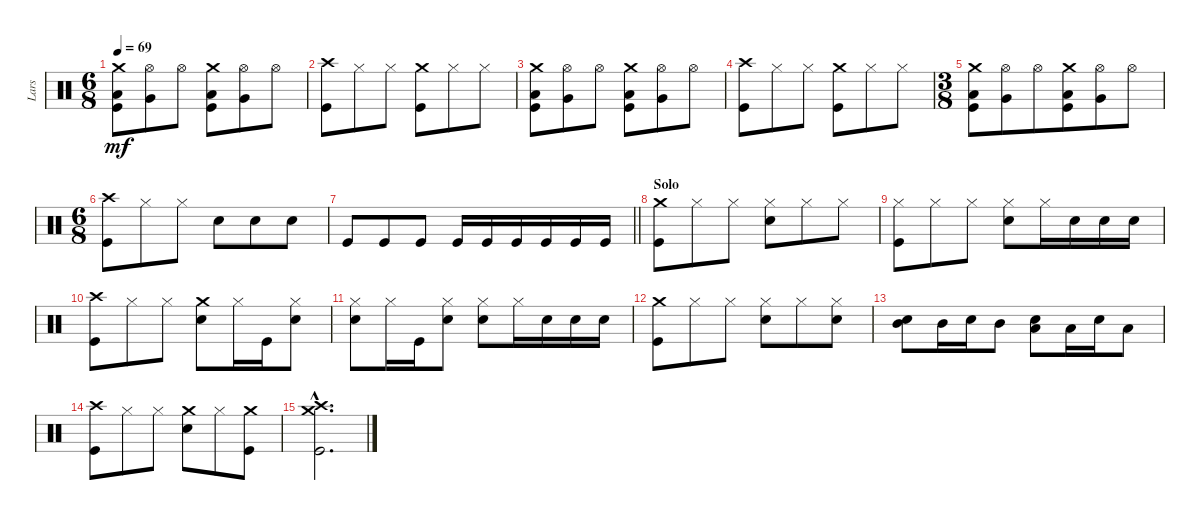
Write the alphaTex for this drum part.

\track ("Lars" "Lars") {instrument percussion}
\staff {score}
\articulation defaults
\ts (6 8)
\tempo 69
\clef neutral
\ks c
("Crash medium (hit)" "Low Tom (hit)" "Kick (hit)").8{dy mf} ("Hi-Hat (open)" "Very Low Tom (hit)").8 "Hi-Hat (open)".8 ("Crash medium (hit)" "Low Tom (hit)" "Kick (hit)").8 ("Hi-Hat (open)" "Very Low Tom (hit)").8 "Hi-Hat (open)".8 |
("Crash high (hit)" "Kick (hit)").8 "Hi-Hat (closed)".8 "Hi-Hat (closed)".8 ("Crash medium (hit)" "Kick (hit)").8 "Hi-Hat (closed)".8 "Hi-Hat (closed)".8 |
("Crash medium (hit)" "Low Tom (hit)" "Kick (hit)").8 ("Hi-Hat (open)" "Very Low Tom (hit)").8 "Hi-Hat (open)".8 ("Crash medium (hit)" "Low Tom (hit)" "Kick (hit)").8 ("Hi-Hat (open)" "Very Low Tom (hit)").8 "Hi-Hat (open)".8 |
("Crash high (hit)" "Kick (hit)").8 "Hi-Hat (closed)".8 "Hi-Hat (closed)".8 ("Crash medium (hit)" "Kick (hit)").8 "Hi-Hat (closed)".8 "Hi-Hat (closed)".8 |
\ts (3 8)
("Crash medium (hit)" "Low Tom (hit)" "Kick (hit)").8 ("Hi-Hat (open)" "Very Low Tom (hit)").8 "Hi-Hat (open)".8 ("Crash medium (hit)" "Low Tom (hit)" "Kick (hit)").8 ("Hi-Hat (open)" "Very Low Tom (hit)").8 "Hi-Hat (open)".8 |
\ts (6 8)
("Crash high (hit)" "Kick (hit)").8 "Hi-Hat (closed)".8 "Hi-Hat (closed)".8 "Snare (hit) 2".8 "Snare (hit) 2".8 "Snare (hit) 2".8 |
\barLineRight lightlight "Kick (hit)".8 "Kick (hit)".8 "Kick (hit)".8 "Kick (hit)".16 "Kick (hit)".16 "Kick (hit)".16 "Kick (hit)".16 "Kick (hit)".16 "Kick (hit)".16
|
\section ("" "Solo")
("Crash medium (hit)" "Kick (hit)").8 "Hi-Hat (closed)".8 "Hi-Hat (closed)".8 ("Hi-Hat (closed)" "Snare (hit) 2").8 "Hi-Hat (closed)".8 "Hi-Hat (closed)".8 |
("Hi-Hat (closed)" "Kick (hit)").8 "Hi-Hat (closed)".8 "Hi-Hat (closed)".8 ("Hi-Hat (closed)" "Snare (hit) 2").8 "Hi-Hat (closed)".16 "Snare (hit) 2".16 "Snare (hit) 2".16 "Snare (hit) 2".16 |
("Crash high (hit)" "Kick (hit)").8 "Hi-Hat (closed)".8 "Hi-Hat (closed)".8 ("Crash medium (hit)" "Snare (hit) 2").8 "Hi-Hat (closed)".16 "Kick (hit)".16 ("Hi-Hat (closed)" "Snare (hit) 2").8 |
("Hi-Hat (closed)" "Snare (hit) 2").8 "Hi-Hat (closed)".16 "Kick (hit)".16 ("Hi-Hat (closed)" "Snare (hit) 2").8 ("Hi-Hat (closed)" "Snare (hit) 2").8 "Hi-Hat (closed)".16 "Snare (hit) 2".16 "Snare (hit) 2".16 "Snare (hit) 2".16 |
("Crash medium (hit)" "Kick (hit)").8 "Hi-Hat (closed)".8 "Hi-Hat (closed)".8 ("Hi-Hat (closed)" "Snare (hit) 2").8 "Hi-Hat (closed)".8 ("Hi-Hat (closed)" "Snare (hit) 2").8 |
("Mid Tom (hit)" "Snare (hit) 2").8 "Mid Tom (hit)".16 "Snare (hit) 2".16 "Mid Tom (hit)".8 ("Low Tom (hit)" "Snare (hit) 2").8 "Low Tom (hit)".16 "Snare (hit) 2".16 "Low Tom (hit)".8 |
("Crash high (hit)" "Kick (hit)").8 "Hi-Hat (closed)".8 "Hi-Hat (closed)".8 ("Crash medium (hit)" "Snare (hit) 2").8 "Hi-Hat (closed)".8 ("Crash medium (hit)" "Kick (hit)").8 |
("Crash medium (hit)"{hac} "Crash high (hit)"{hac} "Kick (hit)"{hac}).2{d}
